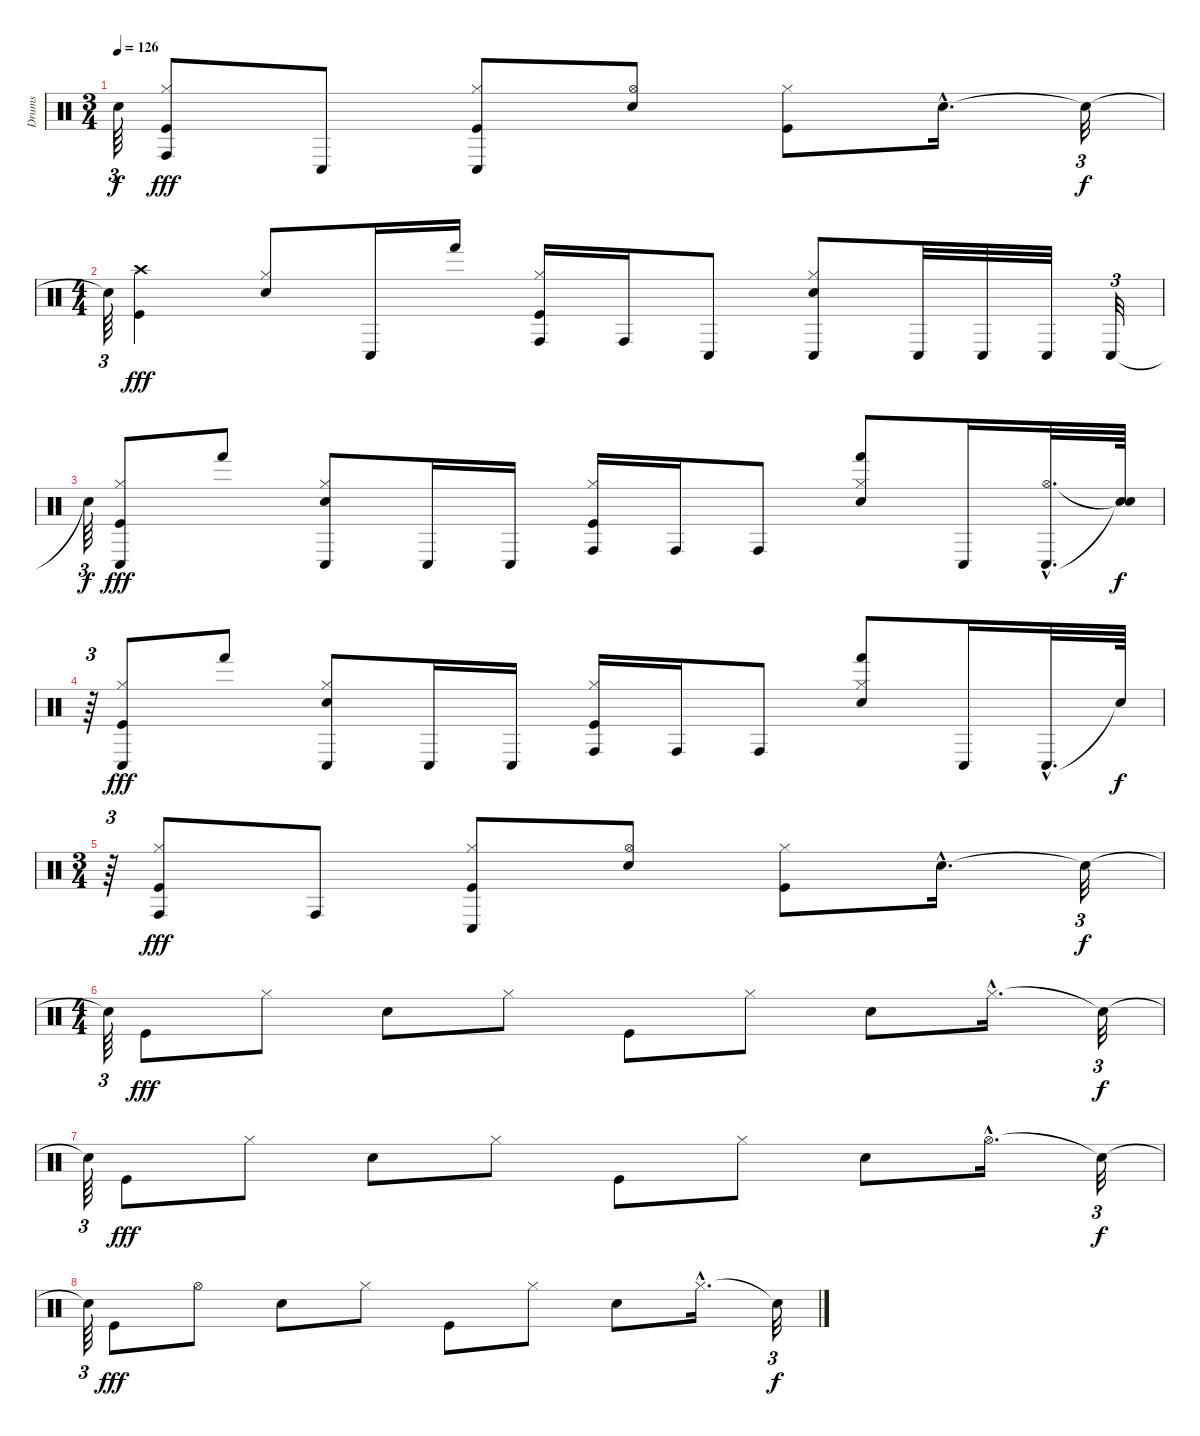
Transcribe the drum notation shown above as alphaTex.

\track ("Drums" "Drums") {instrument percussion}
\staff {score}
\articulation defaults
\ts (3 4)
\tempo 126
\clef neutral
\ks c "Snare (hit)"{t}.64{tu (3 2) dy f}
("Kick (hit)" "Hi-Hat (closed)" "Conga high (hit)").8{dy fff} "Conga low (hit)".8 ("Kick (hit)" "Hi-Hat (closed)" "Conga low (hit)").8 ("Snare (hit) 2" "Hi-Hat (open)").8 ("Kick (hit)" "Hi-Hat (closed)").8 "Snare (hit) 2"{hac}.16{d} "Snare (hit)"{t}.32{tu (3 2) dy f} |
\ts (4 4)
"Snare (hit)"{t}.64{tu (3 2)} ("Kick (hit)" "Crash high (hit)").4{dy fff} ("Snare (hit) 2" "Hi-Hat (closed)").8 "Conga low (hit)".16 "Hand (hit)".16 ("Kick (hit)" "Hi-Hat (closed)" "Conga high (hit)").16 "Conga high (hit)".16 "Conga low (hit)".8 ("Snare (hit) 2" "Hi-Hat (closed)" "Conga low (hit)").8 "Conga low (hit)".32 "Conga low (hit)".32 "Conga low (hit)".32 "Conga low (hit)".32{tu (3 2)} |
"Snare (hit)"{t}.64{tu (3 2) dy f} ("Kick (hit)" "Hi-Hat (closed)" "Conga low (hit)").8{dy fff} "Hand (hit)".8 ("Snare (hit) 2" "Hi-Hat (closed)" "Conga low (hit)").8 "Conga low (hit)".16 "Conga low (hit)".16 ("Kick (hit)" "Hi-Hat (closed)" "Conga high (hit)").16 "Conga high (hit)".16 "Conga high (hit)".8 ("Snare (hit) 2" "Hi-Hat (closed)" "Hand (hit)").8 "Conga low (hit)".16 ("Hi-Hat (open)"{hac} "Conga low (hit)"{hac}).32{d} ("Snare (hit)"{t} "Snare (hit)"{t}).64{dy f} |
r.64{tu (3 2)} ("Kick (hit)" "Hi-Hat (closed)" "Conga low (hit)").8{dy fff} "Hand (hit)".8 ("Snare (hit) 2" "Hi-Hat (closed)" "Conga low (hit)").8 "Conga low (hit)".16 "Conga low (hit)".16 ("Kick (hit)" "Hi-Hat (closed)" "Conga high (hit)").16 "Conga high (hit)".16 "Conga high (hit)".8 ("Snare (hit) 2" "Hi-Hat (closed)" "Hand (hit)").8 "Conga low (hit)".16 "Conga low (hit)"{hac}.32{d} "Snare (hit)"{t}.64{dy f} |
\ts (3 4)
r.64{tu (3 2)} ("Kick (hit)" "Hi-Hat (closed)" "Conga high (hit)").8{dy fff} "Conga high (hit)".8 ("Kick (hit)" "Hi-Hat (closed)" "Conga low (hit)").8 ("Snare (hit) 2" "Hi-Hat (open)").8 ("Kick (hit)" "Hi-Hat (closed)").8 "Snare (hit) 2"{hac}.16{d} "Snare (hit)"{t}.32{tu (3 2) dy f} |
\ts (4 4)
"Snare (hit)"{t}.64{tu (3 2)} "Kick (hit)".8{dy fff} "Hi-Hat (closed)".8 "Snare (hit) 2".8 "Hi-Hat (closed)".8 "Kick (hit)".8 "Hi-Hat (closed)".8 "Snare (hit) 2".8 "Hi-Hat (closed)"{hac}.16{d} "Snare (hit)"{t}.32{tu (3 2) dy f} |
"Snare (hit)"{t}.64{tu (3 2)} "Kick (hit)".8{dy fff} "Hi-Hat (closed)".8 "Snare (hit) 2".8 "Hi-Hat (closed)".8 "Kick (hit)".8 "Hi-Hat (closed)".8 "Snare (hit) 2".8 "Hi-Hat (open)"{hac}.16{d} "Snare (hit)"{t}.32{tu (3 2) dy f} |
"Snare (hit)"{t}.64{tu (3 2)} "Kick (hit)".8{dy fff} "Hi-Hat (open)".8 "Snare (hit) 2".8 "Hi-Hat (closed)".8 "Kick (hit)".8 "Hi-Hat (closed)".8 "Snare (hit) 2".8 "Hi-Hat (closed)"{hac}.16{d} "Snare (hit)"{t}.32{tu (3 2) dy f}
